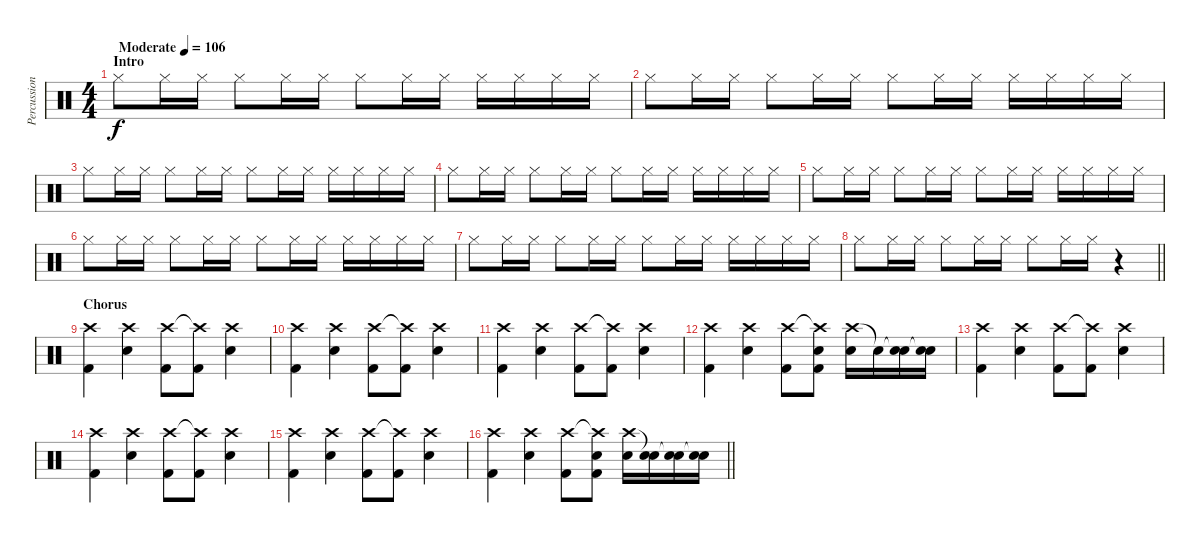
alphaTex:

\track ("Percussion" "Percussion") {instrument percussion}
\staff {score}
\articulation defaults
\ts (4 4)
\section ("" "Intro")
\tempo (106 "Moderate")
\clef neutral
\ks c "Hi-Hat (closed)".8{dy f} "Hi-Hat (closed)".16 "Hi-Hat (closed)".16 "Hi-Hat (closed)".8 "Hi-Hat (closed)".16 "Hi-Hat (closed)".16 "Hi-Hat (closed)".8 "Hi-Hat (closed)".16 "Hi-Hat (closed)".16 "Hi-Hat (closed)".16 "Hi-Hat (closed)".16 "Hi-Hat (closed)".16 "Hi-Hat (closed)".16
|
"Hi-Hat (closed)".8 "Hi-Hat (closed)".16 "Hi-Hat (closed)".16 "Hi-Hat (closed)".8 "Hi-Hat (closed)".16 "Hi-Hat (closed)".16 "Hi-Hat (closed)".8 "Hi-Hat (closed)".16 "Hi-Hat (closed)".16 "Hi-Hat (closed)".16 "Hi-Hat (closed)".16 "Hi-Hat (closed)".16 "Hi-Hat (closed)".16 |
"Hi-Hat (closed)".8 "Hi-Hat (closed)".16 "Hi-Hat (closed)".16 "Hi-Hat (closed)".8 "Hi-Hat (closed)".16 "Hi-Hat (closed)".16 "Hi-Hat (closed)".8 "Hi-Hat (closed)".16 "Hi-Hat (closed)".16 "Hi-Hat (closed)".16 "Hi-Hat (closed)".16 "Hi-Hat (closed)".16 "Hi-Hat (closed)".16 |
"Hi-Hat (closed)".8 "Hi-Hat (closed)".16 "Hi-Hat (closed)".16 "Hi-Hat (closed)".8 "Hi-Hat (closed)".16 "Hi-Hat (closed)".16 "Hi-Hat (closed)".8 "Hi-Hat (closed)".16 "Hi-Hat (closed)".16 "Hi-Hat (closed)".16 "Hi-Hat (closed)".16 "Hi-Hat (closed)".16 "Hi-Hat (closed)".16 |
"Hi-Hat (closed)".8 "Hi-Hat (closed)".16 "Hi-Hat (closed)".16 "Hi-Hat (closed)".8 "Hi-Hat (closed)".16 "Hi-Hat (closed)".16 "Hi-Hat (closed)".8 "Hi-Hat (closed)".16 "Hi-Hat (closed)".16 "Hi-Hat (closed)".16 "Hi-Hat (closed)".16 "Hi-Hat (closed)".16 "Hi-Hat (closed)".16 |
"Hi-Hat (closed)".8 "Hi-Hat (closed)".16 "Hi-Hat (closed)".16 "Hi-Hat (closed)".8 "Hi-Hat (closed)".16 "Hi-Hat (closed)".16 "Hi-Hat (closed)".8 "Hi-Hat (closed)".16 "Hi-Hat (closed)".16 "Hi-Hat (closed)".16 "Hi-Hat (closed)".16 "Hi-Hat (closed)".16 "Hi-Hat (closed)".16 |
"Hi-Hat (closed)".8 "Hi-Hat (closed)".16 "Hi-Hat (closed)".16 "Hi-Hat (closed)".8 "Hi-Hat (closed)".16 "Hi-Hat (closed)".16 "Hi-Hat (closed)".8 "Hi-Hat (closed)".16 "Hi-Hat (closed)".16 "Hi-Hat (closed)".16 "Hi-Hat (closed)".16 "Hi-Hat (closed)".16 "Hi-Hat (closed)".16 |
\barLineRight lightlight "Hi-Hat (closed)".8 "Hi-Hat (closed)".16 "Hi-Hat (closed)".16 "Hi-Hat (closed)".8 "Hi-Hat (closed)".16 "Hi-Hat (closed)".16 "Hi-Hat (closed)".8 "Hi-Hat (closed)".16 "Hi-Hat (closed)".16
r.4 |
\section ("" "Chorus")
("Crash high (hit)" "Kick (hit) 2").4 ("Crash high (hit)" "Electric Snare (hit)").4 ("Crash high (hit)" "Kick (hit) 2").8 ("Crash high (hit)"{t} "Kick (hit) 2").8 ("Crash high (hit)" "Electric Snare (hit)").4 |
("Crash high (hit)" "Kick (hit) 2").4 ("Crash high (hit)" "Electric Snare (hit)").4 ("Crash high (hit)" "Kick (hit) 2").8 ("Crash high (hit)"{t} "Kick (hit) 2").8 ("Crash high (hit)" "Electric Snare (hit)").4 |
("Crash high (hit)" "Kick (hit) 2").4 ("Crash high (hit)" "Electric Snare (hit)").4 ("Crash high (hit)" "Kick (hit) 2").8 ("Crash high (hit)"{t} "Kick (hit) 2").8 ("Crash high (hit)" "Electric Snare (hit)").4 |
("Crash high (hit)" "Kick (hit) 2").4 ("Crash high (hit)" "Electric Snare (hit)").4 ("Crash high (hit)" "Kick (hit) 2").8 ("Crash high (hit)"{t} "Electric Snare (hit)" "Kick (hit) 2").8 ("Crash high (hit)" "Electric Snare (hit)").16 "Snare (hit)"{t}.16 ("Snare (hit)"{t} "Electric Snare (hit)").16 ("Snare (hit)"{t} "Electric Snare (hit)").16 |
("Crash high (hit)" "Kick (hit) 2").4 ("Crash high (hit)" "Electric Snare (hit)").4 ("Crash high (hit)" "Kick (hit) 2").8 ("Crash high (hit)"{t} "Kick (hit) 2").8 ("Crash high (hit)" "Electric Snare (hit)").4 |
("Crash high (hit)" "Kick (hit) 2").4 ("Crash high (hit)" "Electric Snare (hit)").4 ("Crash high (hit)" "Kick (hit) 2").8 ("Crash high (hit)"{t} "Kick (hit) 2").8 ("Crash high (hit)" "Electric Snare (hit)").4 |
("Crash high (hit)" "Kick (hit) 2").4 ("Crash high (hit)" "Electric Snare (hit)").4 ("Crash high (hit)" "Kick (hit) 2").8 ("Crash high (hit)"{t} "Kick (hit) 2").8 ("Crash high (hit)" "Electric Snare (hit)").4 |
\barLineRight lightlight
("Crash high (hit)" "Kick (hit) 2").4 ("Crash high (hit)" "Electric Snare (hit)").4 ("Crash high (hit)" "Kick (hit) 2").8 ("Crash high (hit)"{t} "Electric Snare (hit)" "Kick (hit) 2").8 ("Crash high (hit)" "Electric Snare (hit)").16 ("Snare (hit)"{t} "Electric Snare (hit)").16 ("Snare (hit)"{t} "Electric Snare (hit)").16 ("Snare (hit)"{t} "Electric Snare (hit)").16
